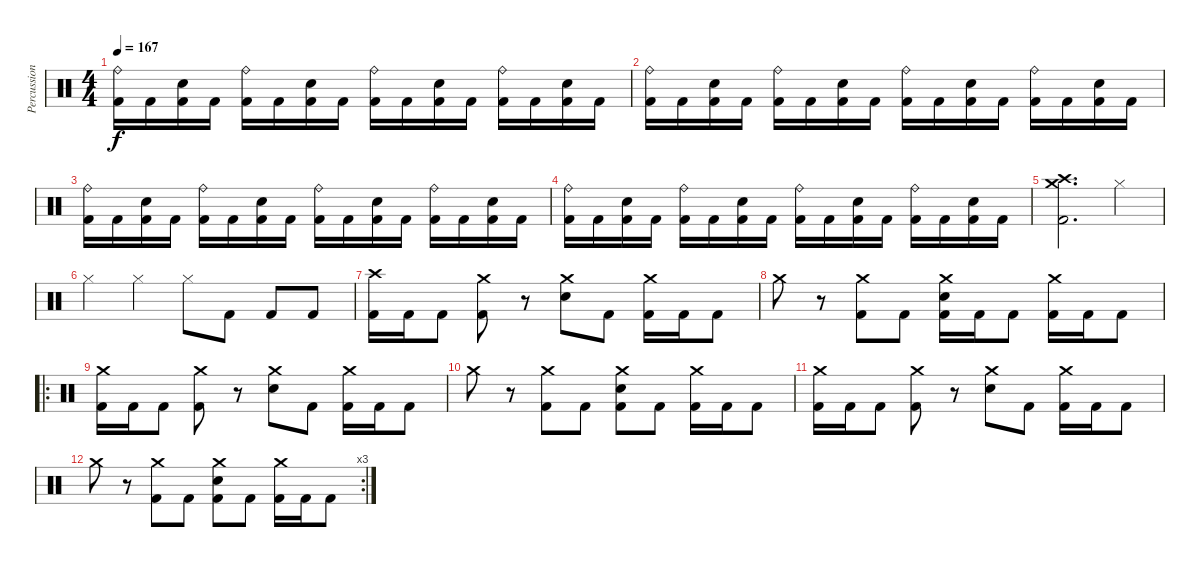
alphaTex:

\track ("Percussion" "Percussion") {instrument percussion}
\staff {score}
\articulation defaults
\ts (4 4)
\tempo 167
\clef neutral
\ks c
("Ride (bell)" "Kick (hit) 2").16{dy f} "Kick (hit) 2".16 ("Electric Snare (hit)" "Kick (hit) 2").16 "Kick (hit) 2".16 ("Ride (bell)" "Kick (hit) 2").16 "Kick (hit) 2".16 ("Electric Snare (hit)" "Kick (hit) 2").16 "Kick (hit) 2".16 ("Ride (bell)" "Kick (hit) 2").16 "Kick (hit) 2".16 ("Electric Snare (hit)" "Kick (hit) 2").16 "Kick (hit) 2".16 ("Ride (bell)" "Kick (hit) 2").16 "Kick (hit) 2".16 ("Electric Snare (hit)" "Kick (hit) 2").16 "Kick (hit) 2".16 |
("Ride (bell)" "Kick (hit) 2").16 "Kick (hit) 2".16 ("Electric Snare (hit)" "Kick (hit) 2").16 "Kick (hit) 2".16 ("Ride (bell)" "Kick (hit) 2").16 "Kick (hit) 2".16 ("Electric Snare (hit)" "Kick (hit) 2").16 "Kick (hit) 2".16 ("Ride (bell)" "Kick (hit) 2").16 "Kick (hit) 2".16 ("Electric Snare (hit)" "Kick (hit) 2").16 "Kick (hit) 2".16 ("Ride (bell)" "Kick (hit) 2").16 "Kick (hit) 2".16 ("Electric Snare (hit)" "Kick (hit) 2").16 "Kick (hit) 2".16 |
("Ride (bell)" "Kick (hit) 2").16 "Kick (hit) 2".16 ("Electric Snare (hit)" "Kick (hit) 2").16 "Kick (hit) 2".16 ("Ride (bell)" "Kick (hit) 2").16 "Kick (hit) 2".16 ("Electric Snare (hit)" "Kick (hit) 2").16 "Kick (hit) 2".16 ("Ride (bell)" "Kick (hit) 2").16 "Kick (hit) 2".16 ("Electric Snare (hit)" "Kick (hit) 2").16 "Kick (hit) 2".16 ("Ride (bell)" "Kick (hit) 2").16 "Kick (hit) 2".16 ("Electric Snare (hit)" "Kick (hit) 2").16 "Kick (hit) 2".16 |
("Ride (bell)" "Kick (hit) 2").16 "Kick (hit) 2".16 ("Electric Snare (hit)" "Kick (hit) 2").16 "Kick (hit) 2".16 ("Ride (bell)" "Kick (hit) 2").16 "Kick (hit) 2".16 ("Electric Snare (hit)" "Kick (hit) 2").16 "Kick (hit) 2".16 ("Ride (bell)" "Kick (hit) 2").16 "Kick (hit) 2".16 ("Electric Snare (hit)" "Kick (hit) 2").16 "Kick (hit) 2".16 ("Ride (bell)" "Kick (hit) 2").16 "Kick (hit) 2".16 ("Electric Snare (hit)" "Kick (hit) 2").16 "Kick (hit) 2".16 |
("Crash medium (hit)" "Crash high (hit)" "Kick (hit) 2").2{d} "Hi-Hat (closed)".4 |
"Hi-Hat (closed)".4 "Hi-Hat (closed)".4 "Hi-Hat (closed)".8 "Kick (hit) 2".8 "Kick (hit) 2".8 "Kick (hit) 2".8 |
("Crash high (hit)" "Kick (hit) 2").16 "Kick (hit) 2".16 "Kick (hit) 2".8 ("Crash medium (hit)" "Kick (hit) 2").8 r.8 ("Crash medium (hit)" "Electric Snare (hit)").8 "Kick (hit) 2".8 ("Crash medium (hit)" "Kick (hit) 2").16 "Kick (hit) 2".16 "Kick (hit) 2".8 |
"Crash medium (hit)".8 r.8 ("Crash medium (hit)" "Kick (hit) 2").8 "Kick (hit) 2".8 ("Crash medium (hit)" "Electric Snare (hit)" "Kick (hit) 2").16 "Kick (hit) 2".16 "Kick (hit) 2".8 ("Crash medium (hit)" "Kick (hit) 2").16 "Kick (hit) 2".16 "Kick (hit) 2".8 |
\ro
("Crash medium (hit)" "Kick (hit) 2").16 "Kick (hit) 2".16 "Kick (hit) 2".8 ("Crash medium (hit)" "Kick (hit) 2").8 r.8 ("Crash medium (hit)" "Electric Snare (hit)").8 "Kick (hit) 2".8 ("Crash medium (hit)" "Kick (hit) 2").16 "Kick (hit) 2".16 "Kick (hit) 2".8 |
"Crash medium (hit)".8 r.8 ("Crash medium (hit)" "Kick (hit) 2").8 "Kick (hit) 2".8 ("Crash medium (hit)" "Electric Snare (hit)" "Kick (hit) 2").8 "Kick (hit) 2".8 ("Crash medium (hit)" "Kick (hit) 2").16 "Kick (hit) 2".16 "Kick (hit) 2".8 |
("Crash medium (hit)" "Kick (hit) 2").16 "Kick (hit) 2".16 "Kick (hit) 2".8 ("Crash medium (hit)" "Kick (hit) 2").8 r.8 ("Crash medium (hit)" "Electric Snare (hit)").8 "Kick (hit) 2".8 ("Crash medium (hit)" "Kick (hit) 2").16 "Kick (hit) 2".16 "Kick (hit) 2".8 |
\rc 3 "Crash medium (hit)".8
r.8 ("Crash medium (hit)" "Kick (hit) 2").8 "Kick (hit) 2".8 ("Crash medium (hit)" "Electric Snare (hit)" "Kick (hit) 2").8 "Kick (hit) 2".8 ("Crash medium (hit)" "Kick (hit) 2").16 "Kick (hit) 2".16 "Kick (hit) 2".8
